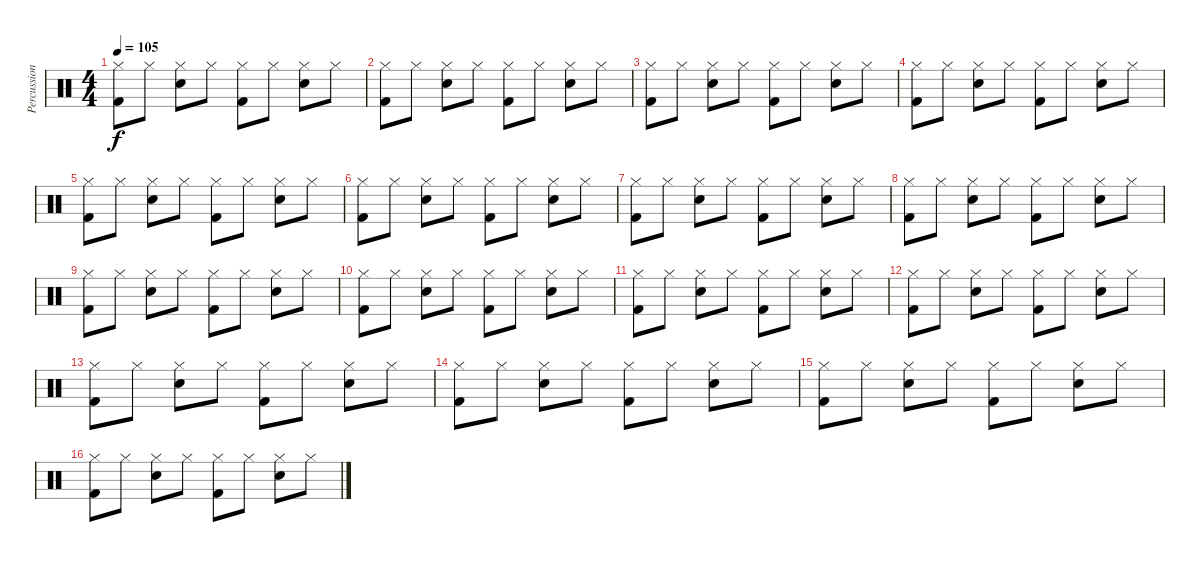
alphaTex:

\track ("Percussions" "Percussion") {instrument percussion}
\staff {score}
\articulation defaults
\ts (4 4)
\tempo 105
\clef neutral
\ks c
("Hi-Hat (closed)" "Kick (hit) 2").8{dy f} "Hi-Hat (closed)".8 ("Hi-Hat (closed)" "Electric Snare (hit)").8 "Hi-Hat (closed)".8 ("Hi-Hat (closed)" "Kick (hit) 2").8 "Hi-Hat (closed)".8 ("Hi-Hat (closed)" "Electric Snare (hit)").8 "Hi-Hat (closed)".8 |
("Hi-Hat (closed)" "Kick (hit) 2").8 "Hi-Hat (closed)".8 ("Hi-Hat (closed)" "Electric Snare (hit)").8 "Hi-Hat (closed)".8 ("Hi-Hat (closed)" "Kick (hit) 2").8 "Hi-Hat (closed)".8 ("Hi-Hat (closed)" "Electric Snare (hit)").8 "Hi-Hat (closed)".8 |
("Hi-Hat (closed)" "Kick (hit) 2").8 "Hi-Hat (closed)".8 ("Hi-Hat (closed)" "Electric Snare (hit)").8 "Hi-Hat (closed)".8 ("Hi-Hat (closed)" "Kick (hit) 2").8 "Hi-Hat (closed)".8 ("Hi-Hat (closed)" "Electric Snare (hit)").8 "Hi-Hat (closed)".8 |
("Hi-Hat (closed)" "Kick (hit) 2").8 "Hi-Hat (closed)".8 ("Hi-Hat (closed)" "Electric Snare (hit)").8 "Hi-Hat (closed)".8 ("Hi-Hat (closed)" "Kick (hit) 2").8 "Hi-Hat (closed)".8 ("Hi-Hat (closed)" "Electric Snare (hit)").8 "Hi-Hat (closed)".8 |
("Hi-Hat (closed)" "Kick (hit) 2").8 "Hi-Hat (closed)".8 ("Hi-Hat (closed)" "Electric Snare (hit)").8 "Hi-Hat (closed)".8 ("Hi-Hat (closed)" "Kick (hit) 2").8 "Hi-Hat (closed)".8 ("Hi-Hat (closed)" "Electric Snare (hit)").8 "Hi-Hat (closed)".8 |
("Hi-Hat (closed)" "Kick (hit) 2").8 "Hi-Hat (closed)".8 ("Hi-Hat (closed)" "Electric Snare (hit)").8 "Hi-Hat (closed)".8 ("Hi-Hat (closed)" "Kick (hit) 2").8 "Hi-Hat (closed)".8 ("Hi-Hat (closed)" "Electric Snare (hit)").8 "Hi-Hat (closed)".8 |
("Hi-Hat (closed)" "Kick (hit) 2").8 "Hi-Hat (closed)".8 ("Hi-Hat (closed)" "Electric Snare (hit)").8 "Hi-Hat (closed)".8 ("Hi-Hat (closed)" "Kick (hit) 2").8 "Hi-Hat (closed)".8 ("Hi-Hat (closed)" "Electric Snare (hit)").8 "Hi-Hat (closed)".8 |
("Hi-Hat (closed)" "Kick (hit) 2").8 "Hi-Hat (closed)".8 ("Hi-Hat (closed)" "Electric Snare (hit)").8 "Hi-Hat (closed)".8 ("Hi-Hat (closed)" "Kick (hit) 2").8 "Hi-Hat (closed)".8 ("Hi-Hat (closed)" "Electric Snare (hit)").8 "Hi-Hat (closed)".8 |
("Hi-Hat (closed)" "Kick (hit) 2").8 "Hi-Hat (closed)".8 ("Hi-Hat (closed)" "Electric Snare (hit)").8 "Hi-Hat (closed)".8 ("Hi-Hat (closed)" "Kick (hit) 2").8 "Hi-Hat (closed)".8 ("Hi-Hat (closed)" "Electric Snare (hit)").8 "Hi-Hat (closed)".8 |
("Hi-Hat (closed)" "Kick (hit) 2").8 "Hi-Hat (closed)".8 ("Hi-Hat (closed)" "Electric Snare (hit)").8 "Hi-Hat (closed)".8 ("Hi-Hat (closed)" "Kick (hit) 2").8 "Hi-Hat (closed)".8 ("Hi-Hat (closed)" "Electric Snare (hit)").8 "Hi-Hat (closed)".8 |
("Hi-Hat (closed)" "Kick (hit) 2").8 "Hi-Hat (closed)".8 ("Hi-Hat (closed)" "Electric Snare (hit)").8 "Hi-Hat (closed)".8 ("Hi-Hat (closed)" "Kick (hit) 2").8 "Hi-Hat (closed)".8 ("Hi-Hat (closed)" "Electric Snare (hit)").8 "Hi-Hat (closed)".8 |
("Hi-Hat (closed)" "Kick (hit) 2").8 "Hi-Hat (closed)".8 ("Hi-Hat (closed)" "Electric Snare (hit)").8 "Hi-Hat (closed)".8 ("Hi-Hat (closed)" "Kick (hit) 2").8 "Hi-Hat (closed)".8 ("Hi-Hat (closed)" "Electric Snare (hit)").8 "Hi-Hat (closed)".8 |
("Hi-Hat (closed)" "Kick (hit) 2").8 "Hi-Hat (closed)".8 ("Hi-Hat (closed)" "Electric Snare (hit)").8 "Hi-Hat (closed)".8 ("Hi-Hat (closed)" "Kick (hit) 2").8 "Hi-Hat (closed)".8 ("Hi-Hat (closed)" "Electric Snare (hit)").8 "Hi-Hat (closed)".8 |
("Hi-Hat (closed)" "Kick (hit) 2").8 "Hi-Hat (closed)".8 ("Hi-Hat (closed)" "Electric Snare (hit)").8 "Hi-Hat (closed)".8 ("Hi-Hat (closed)" "Kick (hit) 2").8 "Hi-Hat (closed)".8 ("Hi-Hat (closed)" "Electric Snare (hit)").8 "Hi-Hat (closed)".8 |
("Hi-Hat (closed)" "Kick (hit) 2").8 "Hi-Hat (closed)".8 ("Hi-Hat (closed)" "Electric Snare (hit)").8 "Hi-Hat (closed)".8 ("Hi-Hat (closed)" "Kick (hit) 2").8 "Hi-Hat (closed)".8 ("Hi-Hat (closed)" "Electric Snare (hit)").8 "Hi-Hat (closed)".8 |
("Hi-Hat (closed)" "Kick (hit) 2").8 "Hi-Hat (closed)".8 ("Hi-Hat (closed)" "Electric Snare (hit)").8 "Hi-Hat (closed)".8 ("Hi-Hat (closed)" "Kick (hit) 2").8 "Hi-Hat (closed)".8 ("Hi-Hat (closed)" "Electric Snare (hit)").8 "Hi-Hat (closed)".8
